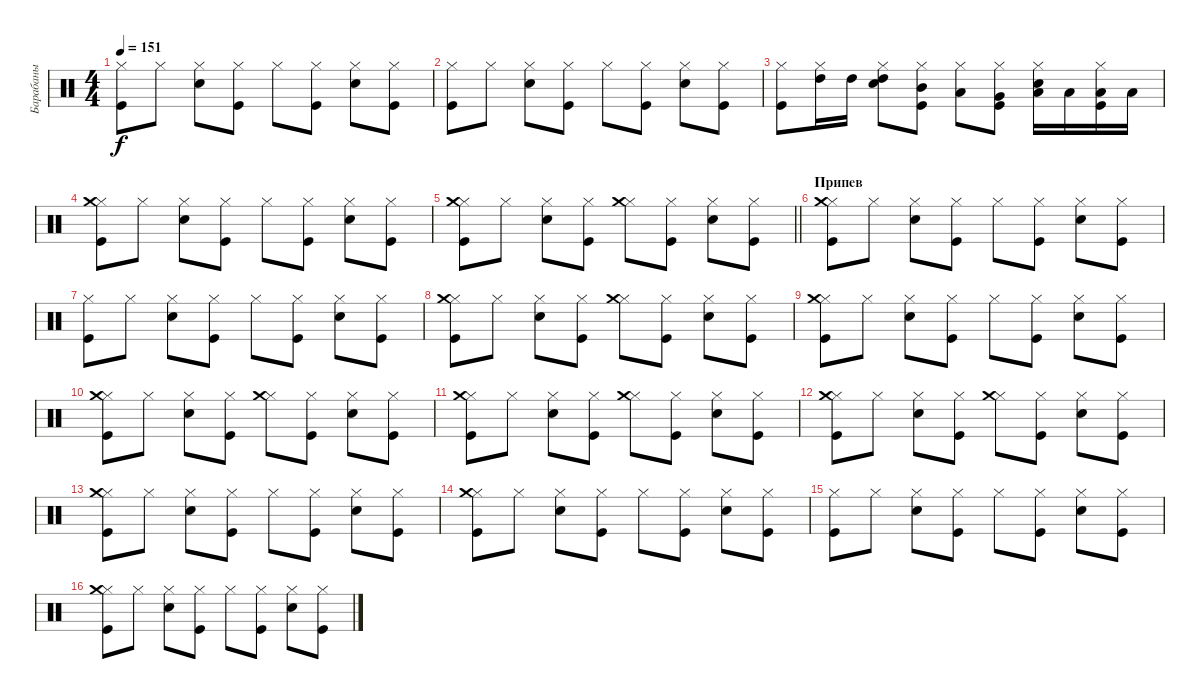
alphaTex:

\track ("Барабаны" "Барабаны") {instrument percussion}
\staff {score}
\articulation defaults
\ts (4 4)
\tempo 151
\clef neutral
\ks c
("Kick (hit)" "Hi-Hat (closed)").8{dy f} "Hi-Hat (closed)".8 ("Snare (hit) 2" "Hi-Hat (closed)").8 ("Kick (hit)" "Hi-Hat (closed)").8 "Hi-Hat (closed)".8 ("Kick (hit)" "Hi-Hat (closed)").8 ("Snare (hit) 2" "Hi-Hat (closed)").8 ("Kick (hit)" "Hi-Hat (closed)").8 |
("Kick (hit)" "Hi-Hat (closed)").8 "Hi-Hat (closed)".8 ("Snare (hit) 2" "Hi-Hat (closed)").8 ("Kick (hit)" "Hi-Hat (closed)").8 "Hi-Hat (closed)".8 ("Kick (hit)" "Hi-Hat (closed)").8 ("Snare (hit) 2" "Hi-Hat (closed)").8 ("Kick (hit)" "Hi-Hat (closed)").8 |
("Kick (hit)" "Hi-Hat (closed)").8 ("Hi-Hat (closed)" "High Tom (hit)").16 "High Tom (hit)".16 ("Snare (hit) 2" "Hi-Hat (closed)" "High Tom (hit)").8 ("Kick (hit)" "Hi-Hat (closed)" "Mid Tom (hit)").8 ("Hi-Hat (closed)" "Low Tom (hit)").8 ("Kick (hit)" "Hi-Hat (closed)" "Very Low Tom (hit)").8 ("Snare (hit) 2" "Hi-Hat (closed)" "Low Floor Tom (hit)").16 "Low Floor Tom (hit)".16 ("Kick (hit)" "Hi-Hat (closed)" "Low Floor Tom (hit)").16 "Low Floor Tom (hit)".16 |
("Kick (hit)" "Hi-Hat (closed)" "Crash medium (hit)").8 "Hi-Hat (closed)".8 ("Snare (hit) 2" "Hi-Hat (closed)").8 ("Kick (hit)" "Hi-Hat (closed)").8 "Hi-Hat (closed)".8 ("Kick (hit)" "Hi-Hat (closed)").8 ("Snare (hit) 2" "Hi-Hat (closed)").8 ("Kick (hit)" "Hi-Hat (closed)").8 |
\barLineRight lightlight
("Kick (hit)" "Hi-Hat (closed)" "Crash medium (hit)").8 "Hi-Hat (closed)".8 ("Snare (hit) 2" "Hi-Hat (closed)").8 ("Kick (hit)" "Hi-Hat (closed)").8 ("Hi-Hat (closed)" "Crash medium (hit)").8 ("Kick (hit)" "Hi-Hat (closed)").8 ("Snare (hit) 2" "Hi-Hat (closed)").8 ("Kick (hit)" "Hi-Hat (closed)").8 |
\section ("" "Припев")
("Kick (hit)" "Hi-Hat (closed)" "Crash medium (hit)").8 "Hi-Hat (closed)".8 ("Snare (hit) 2" "Hi-Hat (closed)").8 ("Kick (hit)" "Hi-Hat (closed)").8 "Hi-Hat (closed)".8 ("Kick (hit)" "Hi-Hat (closed)").8 ("Snare (hit) 2" "Hi-Hat (closed)").8 ("Kick (hit)" "Hi-Hat (closed)").8 |
("Kick (hit)" "Hi-Hat (closed)").8 "Hi-Hat (closed)".8 ("Snare (hit) 2" "Hi-Hat (closed)").8 ("Kick (hit)" "Hi-Hat (closed)").8 "Hi-Hat (closed)".8 ("Kick (hit)" "Hi-Hat (closed)").8 ("Snare (hit) 2" "Hi-Hat (closed)").8 ("Kick (hit)" "Hi-Hat (closed)").8 |
("Kick (hit)" "Hi-Hat (closed)" "Crash medium (hit)").8 "Hi-Hat (closed)".8 ("Snare (hit) 2" "Hi-Hat (closed)").8 ("Kick (hit)" "Hi-Hat (closed)").8 ("Hi-Hat (closed)" "Crash medium (hit)").8 ("Kick (hit)" "Hi-Hat (closed)").8 ("Snare (hit) 2" "Hi-Hat (closed)").8 ("Kick (hit)" "Hi-Hat (closed)").8 |
("Kick (hit)" "Hi-Hat (closed)" "Crash medium (hit)").8 "Hi-Hat (closed)".8 ("Snare (hit) 2" "Hi-Hat (closed)").8 ("Kick (hit)" "Hi-Hat (closed)").8 "Hi-Hat (closed)".8 ("Kick (hit)" "Hi-Hat (closed)").8 ("Snare (hit) 2" "Hi-Hat (closed)").8 ("Kick (hit)" "Hi-Hat (closed)").8 |
("Kick (hit)" "Hi-Hat (closed)" "Crash medium (hit)").8 "Hi-Hat (closed)".8 ("Snare (hit) 2" "Hi-Hat (closed)").8 ("Kick (hit)" "Hi-Hat (closed)").8 ("Hi-Hat (closed)" "Crash medium (hit)").8 ("Kick (hit)" "Hi-Hat (closed)").8 ("Snare (hit) 2" "Hi-Hat (closed)").8 ("Kick (hit)" "Hi-Hat (closed)").8 |
("Kick (hit)" "Hi-Hat (closed)" "Crash medium (hit)").8 "Hi-Hat (closed)".8 ("Snare (hit) 2" "Hi-Hat (closed)").8 ("Kick (hit)" "Hi-Hat (closed)").8 ("Hi-Hat (closed)" "Crash medium (hit)").8 ("Kick (hit)" "Hi-Hat (closed)").8 ("Snare (hit) 2" "Hi-Hat (closed)").8 ("Kick (hit)" "Hi-Hat (closed)").8 |
("Kick (hit)" "Hi-Hat (closed)" "Crash medium (hit)").8 "Hi-Hat (closed)".8 ("Snare (hit) 2" "Hi-Hat (closed)").8 ("Kick (hit)" "Hi-Hat (closed)").8 ("Hi-Hat (closed)" "Crash medium (hit)").8 ("Kick (hit)" "Hi-Hat (closed)").8 ("Snare (hit) 2" "Hi-Hat (closed)").8 ("Kick (hit)" "Hi-Hat (closed)").8 |
("Kick (hit)" "Hi-Hat (closed)" "Crash medium (hit)").8 "Hi-Hat (closed)".8 ("Snare (hit) 2" "Hi-Hat (closed)").8 ("Kick (hit)" "Hi-Hat (closed)").8 "Hi-Hat (closed)".8 ("Kick (hit)" "Hi-Hat (closed)").8 ("Snare (hit) 2" "Hi-Hat (closed)").8 ("Kick (hit)" "Hi-Hat (closed)").8 |
("Kick (hit)" "Hi-Hat (closed)" "Crash medium (hit)").8 "Hi-Hat (closed)".8 ("Snare (hit) 2" "Hi-Hat (closed)").8 ("Kick (hit)" "Hi-Hat (closed)").8 "Hi-Hat (closed)".8 ("Kick (hit)" "Hi-Hat (closed)").8 ("Snare (hit) 2" "Hi-Hat (closed)").8 ("Kick (hit)" "Hi-Hat (closed)").8 |
("Kick (hit)" "Hi-Hat (closed)").8 "Hi-Hat (closed)".8 ("Snare (hit) 2" "Hi-Hat (closed)").8 ("Kick (hit)" "Hi-Hat (closed)").8 "Hi-Hat (closed)".8 ("Kick (hit)" "Hi-Hat (closed)").8 ("Snare (hit) 2" "Hi-Hat (closed)").8 ("Kick (hit)" "Hi-Hat (closed)").8 |
("Kick (hit)" "Hi-Hat (closed)" "Crash medium (hit)").8 "Hi-Hat (closed)".8 ("Snare (hit) 2" "Hi-Hat (closed)").8 ("Kick (hit)" "Hi-Hat (closed)").8 "Hi-Hat (closed)".8 ("Kick (hit)" "Hi-Hat (closed)").8 ("Snare (hit) 2" "Hi-Hat (closed)").8 ("Kick (hit)" "Hi-Hat (closed)").8
